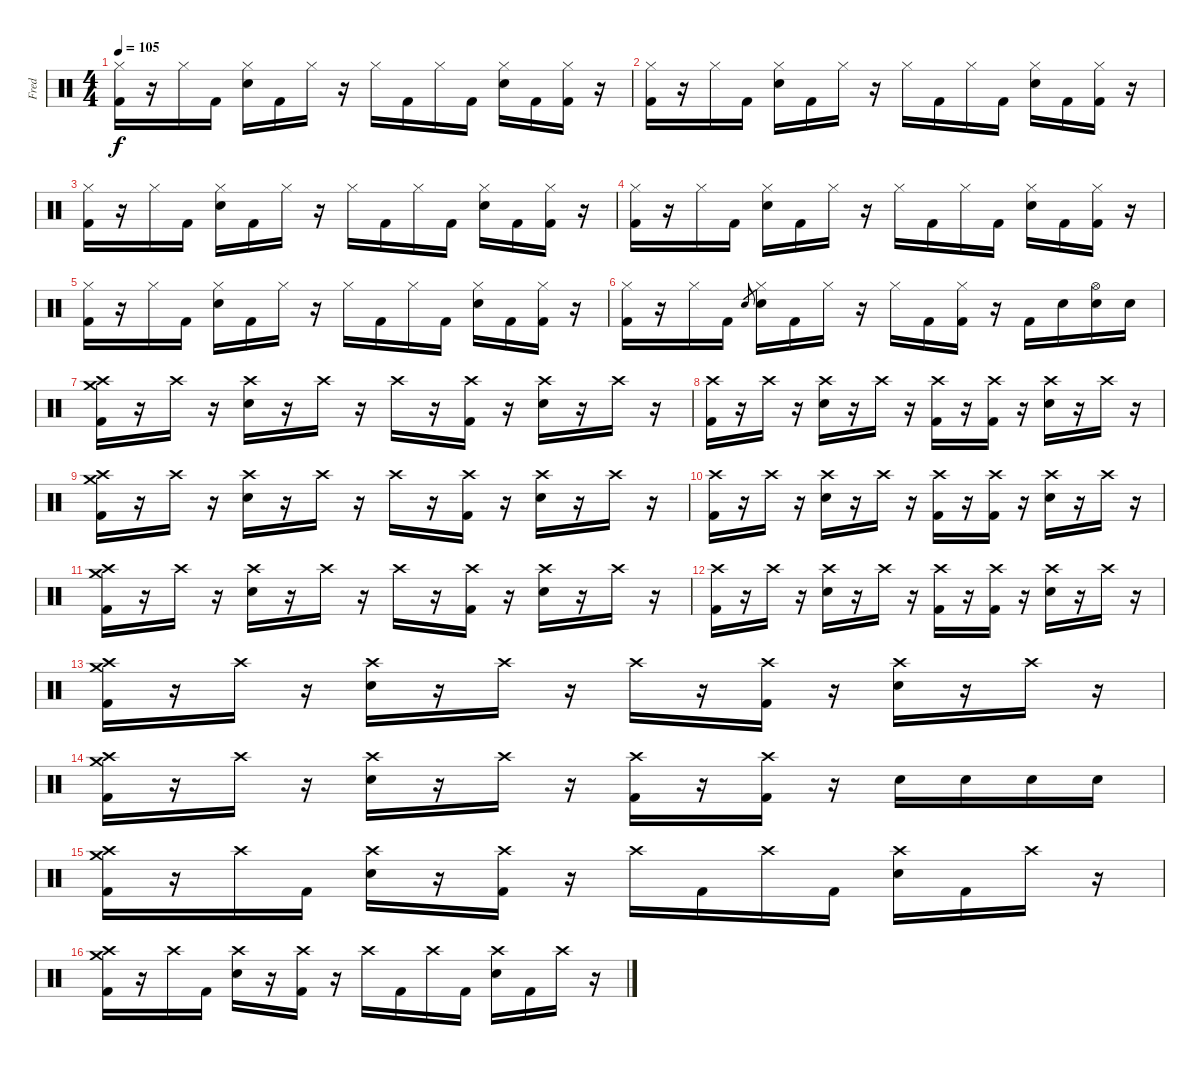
\track ("Fred" "Fred") {instrument percussion}
\staff {score}
\articulation defaults
\ts (4 4)
\tempo 105
\clef neutral
\ks c
("Hi-Hat (closed)" "Kick (hit) 2").16{dy f} r.16 "Hi-Hat (closed)".16 "Kick (hit) 2".16 ("Hi-Hat (closed)" "Electric Snare (hit)").16 "Kick (hit) 2".16 "Hi-Hat (closed)".16 r.16 "Hi-Hat (closed)".16 "Kick (hit) 2".16 "Hi-Hat (closed)".16 "Kick (hit) 2".16 ("Hi-Hat (closed)" "Electric Snare (hit)").16 "Kick (hit) 2".16 ("Hi-Hat (closed)" "Kick (hit) 2").16 r.16 |
("Hi-Hat (closed)" "Kick (hit) 2").16 r.16 "Hi-Hat (closed)".16 "Kick (hit) 2".16 ("Hi-Hat (closed)" "Electric Snare (hit)").16 "Kick (hit) 2".16 "Hi-Hat (closed)".16 r.16 "Hi-Hat (closed)".16 "Kick (hit) 2".16 "Hi-Hat (closed)".16 "Kick (hit) 2".16 ("Hi-Hat (closed)" "Electric Snare (hit)").16 "Kick (hit) 2".16 ("Hi-Hat (closed)" "Kick (hit) 2").16 r.16 |
("Hi-Hat (closed)" "Kick (hit) 2").16 r.16 "Hi-Hat (closed)".16 "Kick (hit) 2".16 ("Hi-Hat (closed)" "Electric Snare (hit)").16 "Kick (hit) 2".16 "Hi-Hat (closed)".16 r.16 "Hi-Hat (closed)".16 "Kick (hit) 2".16 "Hi-Hat (closed)".16 "Kick (hit) 2".16 ("Hi-Hat (closed)" "Electric Snare (hit)").16 "Kick (hit) 2".16 ("Hi-Hat (closed)" "Kick (hit) 2").16 r.16 |
("Hi-Hat (closed)" "Kick (hit) 2").16 r.16 "Hi-Hat (closed)".16 "Kick (hit) 2".16 ("Hi-Hat (closed)" "Electric Snare (hit)").16 "Kick (hit) 2".16 "Hi-Hat (closed)".16 r.16 "Hi-Hat (closed)".16 "Kick (hit) 2".16 "Hi-Hat (closed)".16 "Kick (hit) 2".16 ("Hi-Hat (closed)" "Electric Snare (hit)").16 "Kick (hit) 2".16 ("Hi-Hat (closed)" "Kick (hit) 2").16 r.16 |
("Hi-Hat (closed)" "Kick (hit) 2").16 r.16 "Hi-Hat (closed)".16 "Kick (hit) 2".16 ("Hi-Hat (closed)" "Electric Snare (hit)").16 "Kick (hit) 2".16 "Hi-Hat (closed)".16 r.16 "Hi-Hat (closed)".16 "Kick (hit) 2".16 "Hi-Hat (closed)".16 "Kick (hit) 2".16 ("Hi-Hat (closed)" "Electric Snare (hit)").16 "Kick (hit) 2".16 ("Hi-Hat (closed)" "Kick (hit) 2").16 r.16 |
("Hi-Hat (closed)" "Kick (hit) 2").16 r.16 "Hi-Hat (closed)".16 "Kick (hit) 2".16 "Electric Snare (hit)".8{gr} ("Hi-Hat (closed)" "Electric Snare (hit)").16 "Kick (hit) 2".16 "Hi-Hat (closed)".16 r.16 "Hi-Hat (closed)".16 "Kick (hit) 2".16 ("Hi-Hat (closed)" "Kick (hit) 2").16 r.16 "Kick (hit) 2".16 "Electric Snare (hit)".16 ("Hi-Hat (open)" "Electric Snare (hit)").16 "Electric Snare (hit)".16 |
("Crash high (hit)" "Crash medium (hit)" "Kick (hit) 2").16 r.16 "Crash high (hit)".16 r.16 ("Crash high (hit)" "Electric Snare (hit)").16 r.16 "Crash high (hit)".16 r.16 "Crash high (hit)".16 r.16 ("Crash high (hit)" "Kick (hit) 2").16 r.16 ("Crash high (hit)" "Electric Snare (hit)").16 r.16 "Crash high (hit)".16 r.16 |
("Crash high (hit)" "Kick (hit) 2").16 r.16 "Crash high (hit)".16 r.16 ("Crash high (hit)" "Electric Snare (hit)").16 r.16 "Crash high (hit)".16 r.16 ("Crash high (hit)" "Kick (hit) 2").16 r.16 ("Crash high (hit)" "Kick (hit) 2").16 r.16 ("Crash high (hit)" "Electric Snare (hit)").16 r.16 "Crash high (hit)".16 r.16 |
("Crash high (hit)" "Crash medium (hit)" "Kick (hit) 2").16 r.16 "Crash high (hit)".16 r.16 ("Crash high (hit)" "Electric Snare (hit)").16 r.16 "Crash high (hit)".16 r.16 "Crash high (hit)".16 r.16 ("Crash high (hit)" "Kick (hit) 2").16 r.16 ("Crash high (hit)" "Electric Snare (hit)").16 r.16 "Crash high (hit)".16 r.16 |
("Crash high (hit)" "Kick (hit) 2").16 r.16 "Crash high (hit)".16 r.16 ("Crash high (hit)" "Electric Snare (hit)").16 r.16 "Crash high (hit)".16 r.16 ("Crash high (hit)" "Kick (hit) 2").16 r.16 ("Crash high (hit)" "Kick (hit) 2").16 r.16 ("Crash high (hit)" "Electric Snare (hit)").16 r.16 "Crash high (hit)".16 r.16 |
("Crash high (hit)" "Crash medium (hit)" "Kick (hit) 2").16 r.16 "Crash high (hit)".16 r.16 ("Crash high (hit)" "Electric Snare (hit)").16 r.16 "Crash high (hit)".16 r.16 "Crash high (hit)".16 r.16 ("Crash high (hit)" "Kick (hit) 2").16 r.16 ("Crash high (hit)" "Electric Snare (hit)").16 r.16 "Crash high (hit)".16 r.16 |
("Crash high (hit)" "Kick (hit) 2").16 r.16 "Crash high (hit)".16 r.16 ("Crash high (hit)" "Electric Snare (hit)").16 r.16 "Crash high (hit)".16 r.16 ("Crash high (hit)" "Kick (hit) 2").16 r.16 ("Crash high (hit)" "Kick (hit) 2").16 r.16 ("Crash high (hit)" "Electric Snare (hit)").16 r.16 "Crash high (hit)".16 r.16 |
("Crash high (hit)" "Crash medium (hit)" "Kick (hit) 2").16 r.16 "Crash high (hit)".16 r.16 ("Crash high (hit)" "Electric Snare (hit)").16 r.16 "Crash high (hit)".16 r.16 "Crash high (hit)".16 r.16 ("Crash high (hit)" "Kick (hit) 2").16 r.16 ("Crash high (hit)" "Electric Snare (hit)").16 r.16 "Crash high (hit)".16 r.16 |
("Crash high (hit)" "Crash medium (hit)" "Kick (hit) 2").16 r.16 "Crash high (hit)".16 r.16 ("Crash high (hit)" "Electric Snare (hit)").16 r.16 "Crash high (hit)".16 r.16 ("Crash high (hit)" "Kick (hit) 2").16 r.16 ("Crash high (hit)" "Kick (hit) 2").16 r.16 "Electric Snare (hit)".16 "Electric Snare (hit)".16 "Electric Snare (hit)".16 "Electric Snare (hit)".16 |
("Crash medium (hit)" "Crash high (hit)" "Kick (hit) 2").16 r.16 "Crash high (hit)".16 "Kick (hit) 2".16 ("Crash high (hit)" "Electric Snare (hit)").16 r.16 ("Crash high (hit)" "Kick (hit) 2").16 r.16 "Crash high (hit)".16 "Kick (hit) 2".16 "Crash high (hit)".16 "Kick (hit) 2".16 ("Crash high (hit)" "Electric Snare (hit)").16 "Kick (hit) 2".16 "Crash high (hit)".16 r.16 |
("Crash medium (hit)" "Crash high (hit)" "Kick (hit) 2").16 r.16 "Crash high (hit)".16 "Kick (hit) 2".16 ("Crash high (hit)" "Electric Snare (hit)").16 r.16 ("Crash high (hit)" "Kick (hit) 2").16 r.16 "Crash high (hit)".16 "Kick (hit) 2".16 "Crash high (hit)".16 "Kick (hit) 2".16 ("Crash high (hit)" "Electric Snare (hit)").16 "Kick (hit) 2".16 "Crash high (hit)".16 r.16
